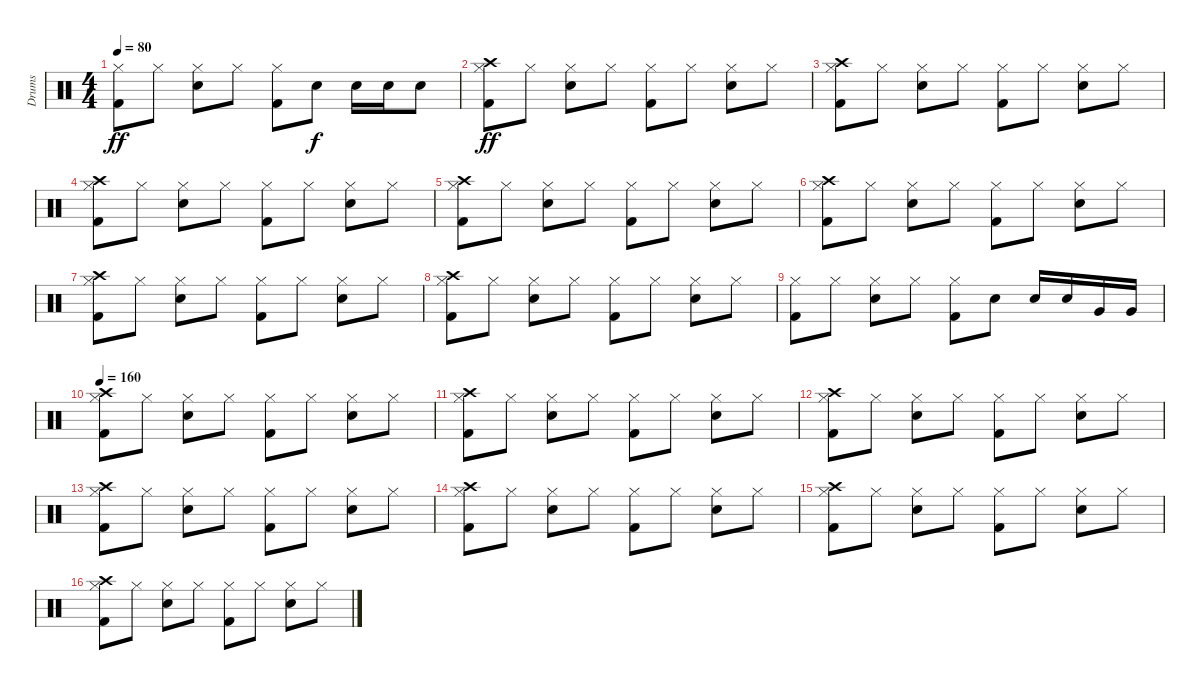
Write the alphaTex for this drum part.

\track ("Drums" "Drums") {instrument percussion}
\staff {score}
\articulation defaults
\ts (4 4)
\tempo 80
\clef neutral
\ks c
("Kick (hit) 2" "Hi-Hat (closed)").8{dy ff volume 12 balance 8} "Hi-Hat (closed)".8 ("Snare (hit) 2" "Hi-Hat (closed)").8 "Hi-Hat (closed)".8 ("Kick (hit) 2" "Hi-Hat (closed)").8 "Snare (hit) 2".8{dy f} "Snare (hit) 2".16 "Snare (hit) 2".16 "Snare (hit) 2".8 |
("Kick (hit) 2" "Hi-Hat (closed)" "Crash high (hit)").8{dy ff volume 12 balance 8} "Hi-Hat (closed)".8 ("Snare (hit) 2" "Hi-Hat (closed)").8 "Hi-Hat (closed)".8 ("Kick (hit) 2" "Hi-Hat (closed)").8 "Hi-Hat (closed)".8 ("Snare (hit) 2" "Hi-Hat (closed)").8 "Hi-Hat (closed)".8 |
("Kick (hit) 2" "Hi-Hat (closed)" "Crash high (hit)").8{volume 14 balance 8} "Hi-Hat (closed)".8 ("Snare (hit) 2" "Hi-Hat (closed)").8 "Hi-Hat (closed)".8 ("Kick (hit) 2" "Hi-Hat (closed)").8 "Hi-Hat (closed)".8 ("Snare (hit) 2" "Hi-Hat (closed)").8 "Hi-Hat (closed)".8 |
("Kick (hit) 2" "Hi-Hat (closed)" "Crash high (hit)").8{volume 14 balance 8} "Hi-Hat (closed)".8 ("Snare (hit) 2" "Hi-Hat (closed)").8 "Hi-Hat (closed)".8 ("Kick (hit) 2" "Hi-Hat (closed)").8 "Hi-Hat (closed)".8 ("Snare (hit) 2" "Hi-Hat (closed)").8 "Hi-Hat (closed)".8 |
("Kick (hit) 2" "Hi-Hat (closed)" "Crash high (hit)").8{volume 14 balance 8} "Hi-Hat (closed)".8 ("Snare (hit) 2" "Hi-Hat (closed)").8 "Hi-Hat (closed)".8 ("Kick (hit) 2" "Hi-Hat (closed)").8 "Hi-Hat (closed)".8 ("Snare (hit) 2" "Hi-Hat (closed)").8 "Hi-Hat (closed)".8 |
("Kick (hit) 2" "Hi-Hat (closed)" "Crash high (hit)").8{volume 14 balance 8} "Hi-Hat (closed)".8 ("Snare (hit) 2" "Hi-Hat (closed)").8 "Hi-Hat (closed)".8 ("Kick (hit) 2" "Hi-Hat (closed)").8 "Hi-Hat (closed)".8 ("Snare (hit) 2" "Hi-Hat (closed)").8 "Hi-Hat (closed)".8 |
("Kick (hit) 2" "Hi-Hat (closed)" "Crash high (hit)").8{volume 14 balance 8} "Hi-Hat (closed)".8 ("Snare (hit) 2" "Hi-Hat (closed)").8 "Hi-Hat (closed)".8 ("Kick (hit) 2" "Hi-Hat (closed)").8 "Hi-Hat (closed)".8 ("Snare (hit) 2" "Hi-Hat (closed)").8 "Hi-Hat (closed)".8 |
("Kick (hit) 2" "Hi-Hat (closed)" "Crash high (hit)").8{volume 14 balance 8} "Hi-Hat (closed)".8 ("Snare (hit) 2" "Hi-Hat (closed)").8 "Hi-Hat (closed)".8 ("Kick (hit) 2" "Hi-Hat (closed)").8 "Hi-Hat (closed)".8 ("Snare (hit) 2" "Hi-Hat (closed)").8 "Hi-Hat (closed)".8 |
("Kick (hit) 2" "Hi-Hat (closed)").8{volume 12 balance 8} "Hi-Hat (closed)".8 ("Snare (hit) 2" "Hi-Hat (closed)").8 "Hi-Hat (closed)".8 ("Kick (hit) 2" "Hi-Hat (closed)").8 "Snare (hit) 2".8 "Snare (hit) 2".16 "Snare (hit) 2".16 "Very Low Tom (hit)".16 "Very Low Tom (hit)".16 |
\tempo 160
("Kick (hit) 2" "Hi-Hat (closed)" "Crash high (hit)").8{volume 14 balance 8} "Hi-Hat (closed)".8 ("Snare (hit) 2" "Hi-Hat (closed)").8 "Hi-Hat (closed)".8 ("Kick (hit) 2" "Hi-Hat (closed)").8 "Hi-Hat (closed)".8 ("Snare (hit) 2" "Hi-Hat (closed)").8 "Hi-Hat (closed)".8 |
("Kick (hit) 2" "Hi-Hat (closed)" "Crash high (hit)").8{volume 14 balance 8} "Hi-Hat (closed)".8 ("Snare (hit) 2" "Hi-Hat (closed)").8 "Hi-Hat (closed)".8 ("Kick (hit) 2" "Hi-Hat (closed)").8 "Hi-Hat (closed)".8 ("Snare (hit) 2" "Hi-Hat (closed)").8 "Hi-Hat (closed)".8 |
("Kick (hit) 2" "Hi-Hat (closed)" "Crash high (hit)").8{volume 14 balance 8} "Hi-Hat (closed)".8 ("Snare (hit) 2" "Hi-Hat (closed)").8 "Hi-Hat (closed)".8 ("Kick (hit) 2" "Hi-Hat (closed)").8 "Hi-Hat (closed)".8 ("Snare (hit) 2" "Hi-Hat (closed)").8 "Hi-Hat (closed)".8 |
("Kick (hit) 2" "Hi-Hat (closed)" "Crash high (hit)").8{volume 14 balance 8} "Hi-Hat (closed)".8 ("Snare (hit) 2" "Hi-Hat (closed)").8 "Hi-Hat (closed)".8 ("Kick (hit) 2" "Hi-Hat (closed)").8 "Hi-Hat (closed)".8 ("Snare (hit) 2" "Hi-Hat (closed)").8 "Hi-Hat (closed)".8 |
("Kick (hit) 2" "Hi-Hat (closed)" "Crash high (hit)").8{volume 13 balance 8} "Hi-Hat (closed)".8 ("Snare (hit) 2" "Hi-Hat (closed)").8 "Hi-Hat (closed)".8 ("Kick (hit) 2" "Hi-Hat (closed)").8 "Hi-Hat (closed)".8 ("Snare (hit) 2" "Hi-Hat (closed)").8 "Hi-Hat (closed)".8 |
("Kick (hit) 2" "Hi-Hat (closed)" "Crash high (hit)").8{volume 13 balance 8} "Hi-Hat (closed)".8 ("Snare (hit) 2" "Hi-Hat (closed)").8 "Hi-Hat (closed)".8 ("Kick (hit) 2" "Hi-Hat (closed)").8 "Hi-Hat (closed)".8 ("Snare (hit) 2" "Hi-Hat (closed)").8 "Hi-Hat (closed)".8 |
("Kick (hit) 2" "Hi-Hat (closed)" "Crash high (hit)").8{volume 13 balance 8} "Hi-Hat (closed)".8 ("Snare (hit) 2" "Hi-Hat (closed)").8 "Hi-Hat (closed)".8 ("Kick (hit) 2" "Hi-Hat (closed)").8 "Hi-Hat (closed)".8 ("Snare (hit) 2" "Hi-Hat (closed)").8 "Hi-Hat (closed)".8
